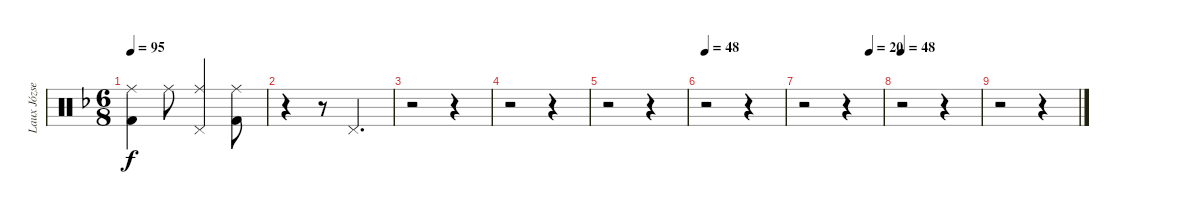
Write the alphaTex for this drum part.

\track ("Laux József" "Laux Józse") {instrument percussion}
\staff {score}
\articulation defaults
\ts (6 8)
\tempo 95
\clef neutral
\ks dminor
("Ride (middle)" "Kick (hit) 2").4{dy f} "Ride (middle)".8 ("Pedal Hi-Hat (hit)" "Ride (middle)").4 ("Ride (middle)" "Kick (hit) 2").8 |
r.4 r.8 "Pedal Hi-Hat (hit)".4{d} |
r.2 r.4 |
r.2 r.4 |
r.2 r.4 |
\tempo 48
r.2 r.4 |
\tempo (20 0.8333333333333334)
r.2 r.4 |
\tempo 48
r.2 r.4 |
r.2 r.4
